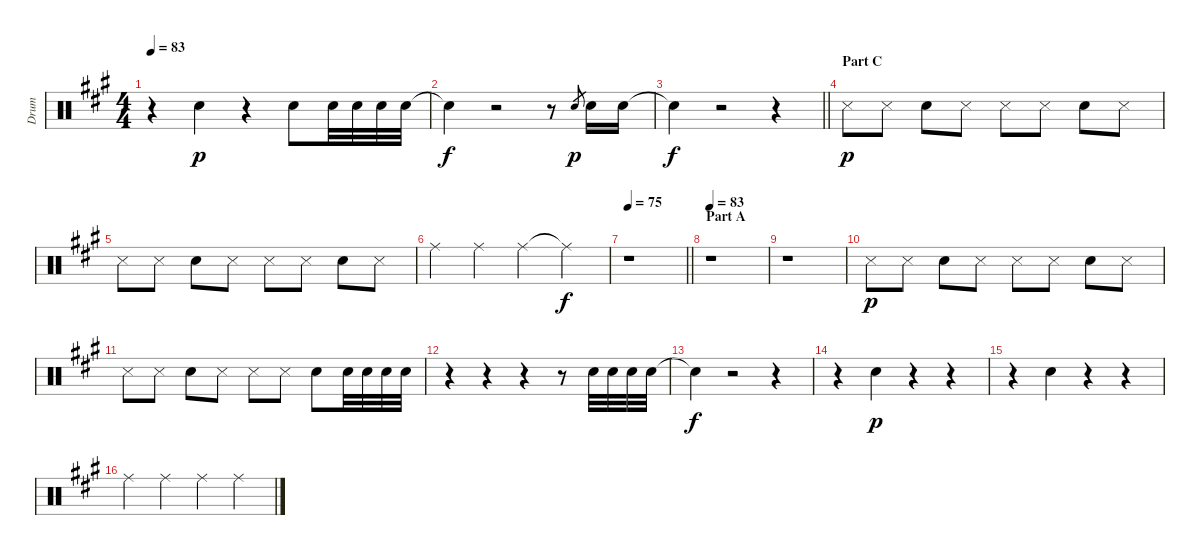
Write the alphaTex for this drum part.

\track ("Drum" "Drum") {instrument percussion}
\staff {score}
\articulation defaults
\ts (4 4)
\tempo 83
\clef neutral
\ks a
r.4{dy p} "Snare (hit) 2".4 r.4 "Snare (hit) 2".8 "Snare (hit) 2".32 "Snare (hit) 2".32 "Snare (hit) 2".32 "Snare (hit) 2".32 |
"Snare (hit)"{t}.4{dy f} r.2 r.8 "Snare (hit) 2".8{gr dy p} "Snare (hit) 2".16 "Snare (hit) 2".16 |
\barLineRight lightlight "Snare (hit) 2"{t}.4{dy f}
r.2 r.4 |
\section ("" "Part C")
"Snare (side stick) 3".8{dy p} "Snare (side stick) 3".8 "Snare (hit) 2".8 "Snare (side stick) 3".8 "Snare (side stick) 3".8 "Snare (side stick) 3".8 "Snare (hit) 2".8 "Snare (side stick) 3".8 |
"Snare (side stick) 3".8 "Snare (side stick) 3".8 "Snare (hit) 2".8 "Snare (side stick) 3".8 "Snare (side stick) 3".8 "Snare (side stick) 3".8 "Snare (hit) 2".8 "Snare (side stick) 3".8 |
"Ride (middle)".4 "Ride (middle)".4 "Ride (middle)".4 "Ride (middle)"{t}.4{dy f} |
\tempo 75
\barLineRight lightlight
r.1 |
\section ("" "Part A")
\tempo 83
r.1 |
r.1 |
"Snare (side stick) 3".8{dy p} "Snare (side stick) 3".8 "Snare (hit) 2".8 "Snare (side stick) 3".8 "Snare (side stick) 3".8 "Snare (side stick) 3".8 "Snare (hit) 2".8 "Snare (side stick) 3".8 |
"Snare (side stick) 3".8 "Snare (side stick) 3".8 "Snare (hit) 2".8 "Snare (side stick) 3".8 "Snare (side stick) 3".8 "Snare (side stick) 3".8 "Snare (hit) 2".8 "Snare (hit) 2".32 "Snare (hit) 2".32 "Snare (hit) 2".32 "Snare (hit) 2".32 |
r.4 r.4 r.4 r.8 "Snare (hit) 2".32 "Snare (hit) 2".32 "Snare (hit) 2".32 "Snare (hit) 2".32 |
"Snare (hit)"{t}.4{dy f} r.2 r.4 |
r.4 "Snare (hit) 2".4{dy p} r.4 r.4 |
r.4 "Snare (hit) 2".4 r.4 r.4 |
"Ride (middle)".4 "Ride (middle)".4 "Ride (middle)".4 "Ride (middle)".4
